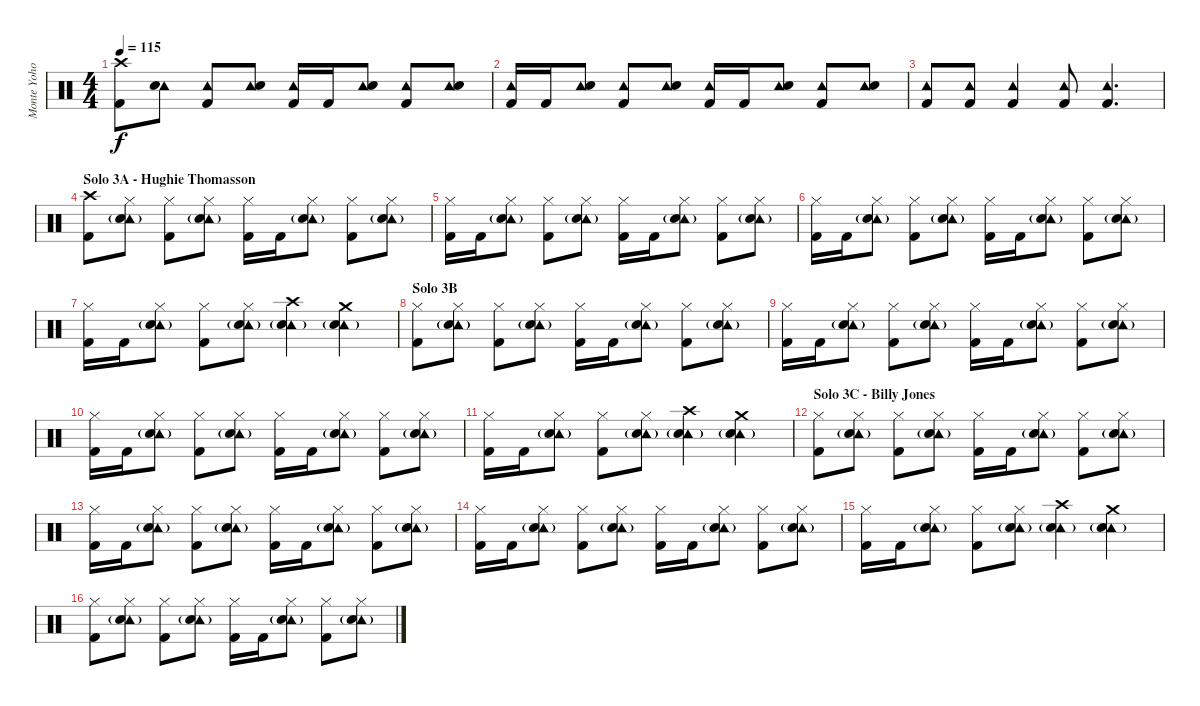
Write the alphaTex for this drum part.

\track ("Monte Yoho - Drums" "Monte Yoho") {instrument percussion}
\staff {score}
\articulation defaults
\ts (4 4)
\tempo 115
\clef neutral
\ks c
("Crash high (hit)" "Kick (hit) 2").8{dy f} ("Tambourine (hit)" "Snare (hit) 2").8 ("Tambourine (hit)" "Kick (hit) 2").8 ("Tambourine (hit)" "Snare (hit) 2").8 ("Tambourine (hit)" "Kick (hit) 2").16 "Kick (hit) 2".16 ("Tambourine (hit)" "Snare (hit) 2").8 ("Tambourine (hit)" "Kick (hit) 2").8 ("Tambourine (hit)" "Snare (hit) 2").8 |
("Tambourine (hit)" "Kick (hit) 2").16 "Kick (hit) 2".16 ("Tambourine (hit)" "Snare (hit) 2").8 ("Tambourine (hit)" "Kick (hit) 2").8 ("Tambourine (hit)" "Snare (hit) 2").8 ("Tambourine (hit)" "Kick (hit) 2").16 "Kick (hit) 2".16 ("Tambourine (hit)" "Snare (hit) 2").8 ("Tambourine (hit)" "Kick (hit) 2").8 ("Tambourine (hit)" "Snare (hit) 2").8 |
("Tambourine (hit)" "Kick (hit) 2").8 ("Tambourine (hit)" "Kick (hit) 2").8 ("Tambourine (hit)" "Kick (hit) 2").4 ("Tambourine (hit)" "Kick (hit) 2").8 ("Tambourine (hit)" "Kick (hit) 2").4{d} |
\section ("" "Solo 3A - Hughie Thomasson")
("Crash high (hit)" "Kick (hit) 2").8 ("Hi-Hat (closed)" "Tambourine (hit)"{g} "Snare (hit) 2").8 ("Hi-Hat (closed)" "Kick (hit) 2").8 ("Hi-Hat (closed)" "Tambourine (hit)"{g} "Snare (hit) 2").8 ("Hi-Hat (closed)" "Kick (hit) 2").16 "Kick (hit) 2".16 ("Hi-Hat (closed)" "Tambourine (hit)"{g} "Snare (hit) 2").8 ("Hi-Hat (closed)" "Kick (hit) 2").8 ("Hi-Hat (closed)" "Tambourine (hit)"{g} "Snare (hit) 2").8 |
("Hi-Hat (closed)" "Kick (hit) 2").16 "Kick (hit) 2".16 ("Hi-Hat (closed)" "Tambourine (hit)"{g} "Snare (hit) 2").8 ("Hi-Hat (closed)" "Kick (hit) 2").8 ("Hi-Hat (closed)" "Tambourine (hit)"{g} "Snare (hit) 2").8 ("Hi-Hat (closed)" "Kick (hit) 2").16 "Kick (hit) 2".16 ("Hi-Hat (closed)" "Tambourine (hit)"{g} "Snare (hit) 2").8 ("Hi-Hat (closed)" "Kick (hit) 2").8 ("Hi-Hat (closed)" "Tambourine (hit)"{g} "Snare (hit) 2").8 |
("Hi-Hat (closed)" "Kick (hit) 2").16 "Kick (hit) 2".16 ("Hi-Hat (closed)" "Tambourine (hit)"{g} "Snare (hit) 2").8 ("Hi-Hat (closed)" "Kick (hit) 2").8 ("Hi-Hat (closed)" "Tambourine (hit)"{g} "Snare (hit) 2").8 ("Hi-Hat (closed)" "Kick (hit) 2").16 "Kick (hit) 2".16 ("Hi-Hat (closed)" "Tambourine (hit)"{g} "Snare (hit) 2").8 ("Hi-Hat (closed)" "Kick (hit) 2").8 ("Hi-Hat (closed)" "Tambourine (hit)"{g} "Snare (hit) 2").8 |
("Hi-Hat (closed)" "Kick (hit) 2").16 "Kick (hit) 2".16 ("Hi-Hat (closed)" "Tambourine (hit)"{g} "Snare (hit) 2").8 ("Hi-Hat (closed)" "Kick (hit) 2").8 ("Hi-Hat (closed)" "Tambourine (hit)"{g} "Snare (hit) 2").8 ("Crash high (hit)" "Tambourine (hit)"{g} "Snare (hit) 2").4 ("Crash medium (hit)" "Tambourine (hit)"{g} "Snare (hit) 2").4 |
\section ("" "Solo 3B")
("Hi-Hat (closed)" "Kick (hit) 2").8 ("Hi-Hat (closed)" "Tambourine (hit)"{g} "Snare (hit) 2").8 ("Hi-Hat (closed)" "Kick (hit) 2").8 ("Hi-Hat (closed)" "Tambourine (hit)"{g} "Snare (hit) 2").8 ("Hi-Hat (closed)" "Kick (hit) 2").16 "Kick (hit) 2".16 ("Hi-Hat (closed)" "Tambourine (hit)"{g} "Snare (hit) 2").8 ("Hi-Hat (closed)" "Kick (hit) 2").8 ("Hi-Hat (closed)" "Tambourine (hit)"{g} "Snare (hit) 2").8 |
("Hi-Hat (closed)" "Kick (hit) 2").16 "Kick (hit) 2".16 ("Hi-Hat (closed)" "Tambourine (hit)"{g} "Snare (hit) 2").8 ("Hi-Hat (closed)" "Kick (hit) 2").8 ("Hi-Hat (closed)" "Tambourine (hit)"{g} "Snare (hit) 2").8 ("Hi-Hat (closed)" "Kick (hit) 2").16 "Kick (hit) 2".16 ("Hi-Hat (closed)" "Tambourine (hit)"{g} "Snare (hit) 2").8 ("Hi-Hat (closed)" "Kick (hit) 2").8 ("Hi-Hat (closed)" "Tambourine (hit)"{g} "Snare (hit) 2").8 |
("Hi-Hat (closed)" "Kick (hit) 2").16 "Kick (hit) 2".16 ("Hi-Hat (closed)" "Tambourine (hit)"{g} "Snare (hit) 2").8 ("Hi-Hat (closed)" "Kick (hit) 2").8 ("Hi-Hat (closed)" "Tambourine (hit)"{g} "Snare (hit) 2").8 ("Hi-Hat (closed)" "Kick (hit) 2").16 "Kick (hit) 2".16 ("Hi-Hat (closed)" "Tambourine (hit)"{g} "Snare (hit) 2").8 ("Hi-Hat (closed)" "Kick (hit) 2").8 ("Hi-Hat (closed)" "Tambourine (hit)"{g} "Snare (hit) 2").8 |
("Hi-Hat (closed)" "Kick (hit) 2").16 "Kick (hit) 2".16 ("Hi-Hat (closed)" "Tambourine (hit)"{g} "Snare (hit) 2").8 ("Hi-Hat (closed)" "Kick (hit) 2").8 ("Hi-Hat (closed)" "Tambourine (hit)"{g} "Snare (hit) 2").8 ("Crash high (hit)" "Tambourine (hit)"{g} "Snare (hit) 2").4 ("Crash medium (hit)" "Tambourine (hit)"{g} "Snare (hit) 2").4 |
\section ("" "Solo 3C - Billy Jones")
("Hi-Hat (closed)" "Kick (hit) 2").8 ("Hi-Hat (closed)" "Tambourine (hit)"{g} "Snare (hit) 2").8 ("Hi-Hat (closed)" "Kick (hit) 2").8 ("Hi-Hat (closed)" "Tambourine (hit)"{g} "Snare (hit) 2").8 ("Hi-Hat (closed)" "Kick (hit) 2").16 "Kick (hit) 2".16 ("Hi-Hat (closed)" "Tambourine (hit)"{g} "Snare (hit) 2").8 ("Hi-Hat (closed)" "Kick (hit) 2").8 ("Hi-Hat (closed)" "Tambourine (hit)"{g} "Snare (hit) 2").8 |
("Hi-Hat (closed)" "Kick (hit) 2").16 "Kick (hit) 2".16 ("Hi-Hat (closed)" "Tambourine (hit)"{g} "Snare (hit) 2").8 ("Hi-Hat (closed)" "Kick (hit) 2").8 ("Hi-Hat (closed)" "Tambourine (hit)"{g} "Snare (hit) 2").8 ("Hi-Hat (closed)" "Kick (hit) 2").16 "Kick (hit) 2".16 ("Hi-Hat (closed)" "Tambourine (hit)"{g} "Snare (hit) 2").8 ("Hi-Hat (closed)" "Kick (hit) 2").8 ("Hi-Hat (closed)" "Tambourine (hit)"{g} "Snare (hit) 2").8 |
("Hi-Hat (closed)" "Kick (hit) 2").16 "Kick (hit) 2".16 ("Hi-Hat (closed)" "Tambourine (hit)"{g} "Snare (hit) 2").8 ("Hi-Hat (closed)" "Kick (hit) 2").8 ("Hi-Hat (closed)" "Tambourine (hit)"{g} "Snare (hit) 2").8 ("Hi-Hat (closed)" "Kick (hit) 2").16 "Kick (hit) 2".16 ("Hi-Hat (closed)" "Tambourine (hit)"{g} "Snare (hit) 2").8 ("Hi-Hat (closed)" "Kick (hit) 2").8 ("Hi-Hat (closed)" "Tambourine (hit)"{g} "Snare (hit) 2").8 |
("Hi-Hat (closed)" "Kick (hit) 2").16 "Kick (hit) 2".16 ("Hi-Hat (closed)" "Tambourine (hit)"{g} "Snare (hit) 2").8 ("Hi-Hat (closed)" "Kick (hit) 2").8 ("Hi-Hat (closed)" "Tambourine (hit)"{g} "Snare (hit) 2").8 ("Crash high (hit)" "Tambourine (hit)"{g} "Snare (hit) 2").4 ("Crash medium (hit)" "Tambourine (hit)"{g} "Snare (hit) 2").4 |
("Hi-Hat (closed)" "Kick (hit) 2").8 ("Hi-Hat (closed)" "Tambourine (hit)"{g} "Snare (hit) 2").8 ("Hi-Hat (closed)" "Kick (hit) 2").8 ("Hi-Hat (closed)" "Tambourine (hit)"{g} "Snare (hit) 2").8 ("Hi-Hat (closed)" "Kick (hit) 2").16 "Kick (hit) 2".16 ("Hi-Hat (closed)" "Tambourine (hit)"{g} "Snare (hit) 2").8 ("Hi-Hat (closed)" "Kick (hit) 2").8 ("Hi-Hat (closed)" "Tambourine (hit)"{g} "Snare (hit) 2").8
